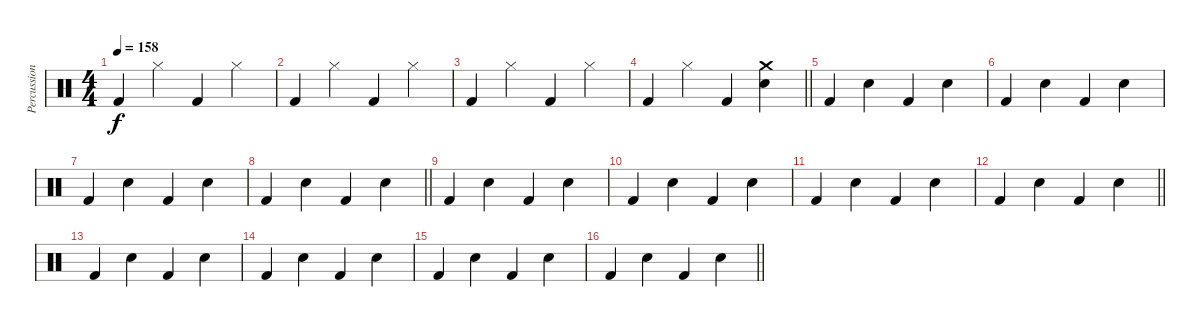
\track ("Percussions" "Percussion") {instrument percussion}
\staff {score}
\articulation defaults
\ts (4 4)
\tempo 158
\clef neutral
\ks c "Kick (hit) 2".4{dy f} "Hi-Hat (closed)".4 "Kick (hit) 2".4 "Hi-Hat (closed)".4
|
"Kick (hit) 2".4 "Hi-Hat (closed)".4 "Kick (hit) 2".4 "Hi-Hat (closed)".4 |
"Kick (hit) 2".4 "Hi-Hat (closed)".4 "Kick (hit) 2".4 "Hi-Hat (closed)".4 |
\barLineRight lightlight "Kick (hit) 2".4 "Hi-Hat (closed)".4 "Kick (hit) 2".4
("Crash medium (hit)" "Electric Snare (hit)").4 |
"Kick (hit) 2".4{volume 16} "Electric Snare (hit)".4 "Kick (hit) 2".4 "Electric Snare (hit)".4 |
"Kick (hit) 2".4 "Electric Snare (hit)".4 "Kick (hit) 2".4 "Electric Snare (hit)".4 |
"Kick (hit) 2".4{volume 16} "Electric Snare (hit)".4 "Kick (hit) 2".4 "Electric Snare (hit)".4 |
\barLineRight lightlight "Kick (hit) 2".4 "Electric Snare (hit)".4 "Kick (hit) 2".4 "Electric Snare (hit)".4
|
"Kick (hit) 2".4{volume 16} "Electric Snare (hit)".4 "Kick (hit) 2".4 "Electric Snare (hit)".4 |
"Kick (hit) 2".4 "Electric Snare (hit)".4 "Kick (hit) 2".4 "Electric Snare (hit)".4 |
"Kick (hit) 2".4{volume 16} "Electric Snare (hit)".4 "Kick (hit) 2".4 "Electric Snare (hit)".4 |
\barLineRight lightlight "Kick (hit) 2".4 "Electric Snare (hit)".4 "Kick (hit) 2".4 "Electric Snare (hit)".4
|
"Kick (hit) 2".4{volume 16} "Electric Snare (hit)".4 "Kick (hit) 2".4 "Electric Snare (hit)".4 |
"Kick (hit) 2".4 "Electric Snare (hit)".4 "Kick (hit) 2".4 "Electric Snare (hit)".4 |
"Kick (hit) 2".4{volume 16} "Electric Snare (hit)".4 "Kick (hit) 2".4 "Electric Snare (hit)".4 |
\barLineRight lightlight "Kick (hit) 2".4 "Electric Snare (hit)".4 "Kick (hit) 2".4 "Electric Snare (hit)".4
